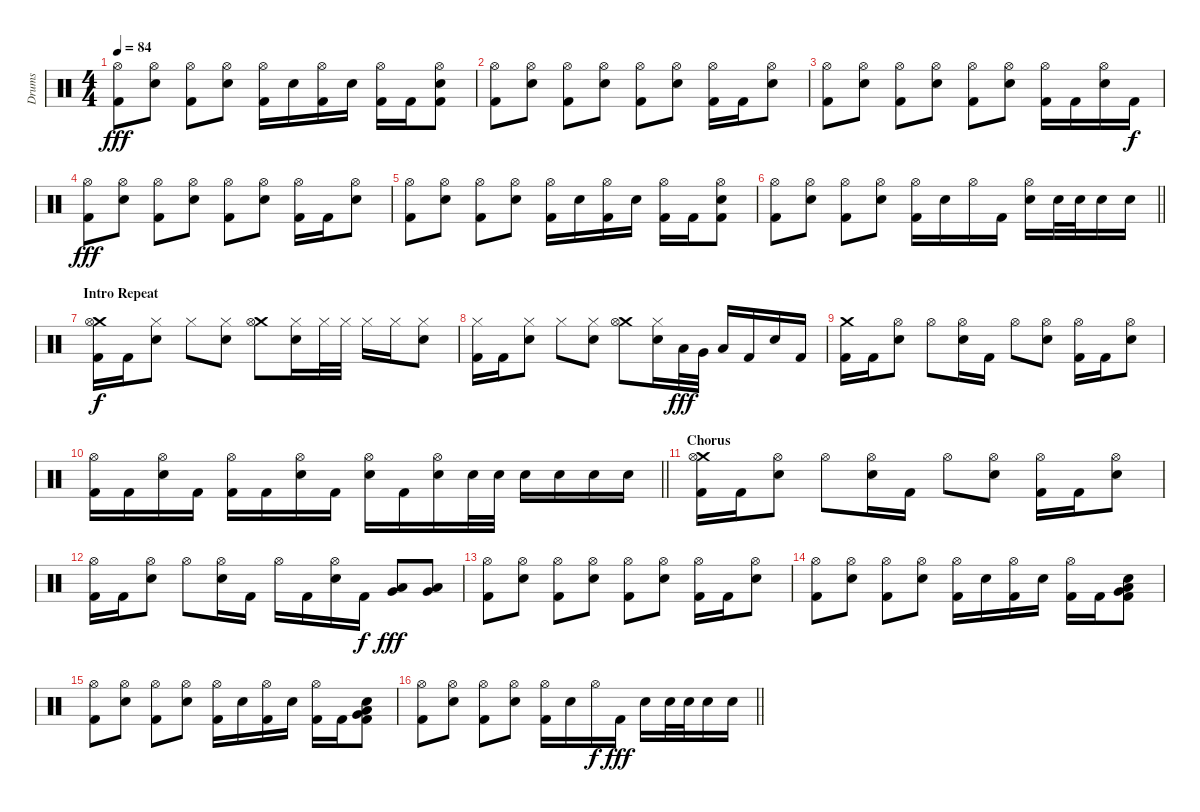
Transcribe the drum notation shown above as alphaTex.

\track ("Drums" "Drums") {instrument percussion}
\staff {score}
\articulation defaults
\ts (4 4)
\tempo 84
\clef neutral
\ks c
("Hi-Hat (open)" "Kick (hit) 2").8{dy fff} ("Hi-Hat (open)" "Electric Snare (hit)").8 ("Hi-Hat (open)" "Kick (hit) 2").8 ("Hi-Hat (open)" "Electric Snare (hit)").8 ("Hi-Hat (open)" "Kick (hit) 2").16 "Electric Snare (hit)".16 ("Hi-Hat (open)" "Kick (hit) 2").16 "Electric Snare (hit)".16 ("Hi-Hat (open)" "Kick (hit) 2").16 "Kick (hit) 2".16 ("Hi-Hat (open)" "Electric Snare (hit)" "Kick (hit) 2").8 |
("Hi-Hat (open)" "Kick (hit) 2").8 ("Hi-Hat (open)" "Electric Snare (hit)").8 ("Hi-Hat (open)" "Kick (hit) 2").8 ("Hi-Hat (open)" "Electric Snare (hit)").8 ("Hi-Hat (open)" "Kick (hit) 2").8 ("Hi-Hat (open)" "Electric Snare (hit)").8 ("Hi-Hat (open)" "Kick (hit) 2").16 "Kick (hit) 2".16 ("Hi-Hat (open)" "Electric Snare (hit)").8 |
("Hi-Hat (open)" "Kick (hit) 2").8 ("Hi-Hat (open)" "Electric Snare (hit)").8 ("Hi-Hat (open)" "Kick (hit) 2").8 ("Hi-Hat (open)" "Electric Snare (hit)").8 ("Hi-Hat (open)" "Kick (hit) 2").8 ("Hi-Hat (open)" "Electric Snare (hit)").8 ("Hi-Hat (open)" "Kick (hit) 2").16 "Kick (hit) 2".16 ("Hi-Hat (open)" "Electric Snare (hit)").16 "Kick (hit) 2".16{dy f} |
("Hi-Hat (open)" "Kick (hit) 2").8{dy fff} ("Hi-Hat (open)" "Electric Snare (hit)").8 ("Hi-Hat (open)" "Kick (hit) 2").8 ("Hi-Hat (open)" "Electric Snare (hit)").8 ("Hi-Hat (open)" "Kick (hit) 2").8 ("Hi-Hat (open)" "Electric Snare (hit)").8 ("Hi-Hat (open)" "Kick (hit) 2").16 "Kick (hit) 2".16 ("Hi-Hat (open)" "Electric Snare (hit)").8 |
("Hi-Hat (open)" "Kick (hit) 2").8 ("Hi-Hat (open)" "Electric Snare (hit)").8 ("Hi-Hat (open)" "Kick (hit) 2").8 ("Hi-Hat (open)" "Electric Snare (hit)").8 ("Hi-Hat (open)" "Kick (hit) 2").16 "Electric Snare (hit)".16 ("Hi-Hat (open)" "Kick (hit) 2").16 "Electric Snare (hit)".16 ("Hi-Hat (open)" "Kick (hit) 2").16 "Kick (hit) 2".16 ("Hi-Hat (open)" "Electric Snare (hit)" "Kick (hit) 2").8 |
\barLineRight lightlight
("Hi-Hat (open)" "Kick (hit) 2").8 ("Hi-Hat (open)" "Electric Snare (hit)").8 ("Hi-Hat (open)" "Kick (hit) 2").8 ("Hi-Hat (open)" "Electric Snare (hit)").8 ("Hi-Hat (open)" "Kick (hit) 2").16 "Electric Snare (hit)".16 "Hi-Hat (open)".16 "Kick (hit) 2".16 ("Hi-Hat (open)" "Electric Snare (hit)").16 "Electric Snare (hit)".32 "Electric Snare (hit)".32 "Electric Snare (hit)".16 "Electric Snare (hit)".16 |
\section ("" "Intro Repeat")
("Crash medium (hit)" "Hi-Hat (open)" "Kick (hit) 2").16{dy f} "Kick (hit) 2".16 ("Hi-Hat (closed)" "Electric Snare (hit)").8 "Hi-Hat (closed)".8 ("Hi-Hat (closed)" "Electric Snare (hit)").8 ("Crash medium (hit)" "Hi-Hat (open)").8 ("Hi-Hat (closed)" "Electric Snare (hit)").16 "Hi-Hat (closed)".32 "Hi-Hat (closed)".32 "Hi-Hat (closed)".16 "Hi-Hat (closed)".16 ("Hi-Hat (closed)" "Electric Snare (hit)").8 |
("Hi-Hat (closed)" "Kick (hit) 2").16 "Kick (hit) 2".16 ("Hi-Hat (closed)" "Electric Snare (hit)").8 "Hi-Hat (closed)".8 ("Hi-Hat (closed)" "Electric Snare (hit)").8 ("Crash medium (hit)" "Hi-Hat (open)").8 ("Hi-Hat (closed)" "Electric Snare (hit)").16 "Low Tom (hit)".32{dy fff} "Very Low Tom (hit)".32 "Low Floor Tom (hit)".16 "Kick (hit) 2".16 "Electric Snare (hit)".16 "Kick (hit) 2".16 |
("Crash medium (hit)" "Kick (hit) 2").16 "Kick (hit) 2".16 ("Hi-Hat (open)" "Electric Snare (hit)").8 "Hi-Hat (open)".8 ("Hi-Hat (open)" "Electric Snare (hit)").16 "Kick (hit) 2".16 "Hi-Hat (open)".8 ("Hi-Hat (open)" "Electric Snare (hit)").8 ("Hi-Hat (open)" "Kick (hit) 2").16 "Kick (hit) 2".16 ("Hi-Hat (open)" "Electric Snare (hit)").8 |
\barLineRight lightlight
("Hi-Hat (open)" "Kick (hit) 2").16 "Kick (hit) 2".16 ("Hi-Hat (open)" "Electric Snare (hit)").16 "Kick (hit) 2".16 ("Hi-Hat (open)" "Kick (hit) 2").16 "Kick (hit) 2".16 ("Hi-Hat (open)" "Electric Snare (hit)").16 "Kick (hit) 2".16 ("Hi-Hat (open)" "Electric Snare (hit)").16 "Kick (hit) 2".16 ("Hi-Hat (open)" "Electric Snare (hit)").16 "Electric Snare (hit)".32 "Electric Snare (hit)".32 "Electric Snare (hit)".16 "Electric Snare (hit)".16 "Electric Snare (hit)".16 "Electric Snare (hit)".16 |
\section ("" "Chorus")
("Crash medium (hit)" "Hi-Hat (open)" "Kick (hit) 2").16 "Kick (hit) 2".16 ("Hi-Hat (open)" "Electric Snare (hit)").8 "Hi-Hat (open)".8 ("Hi-Hat (open)" "Electric Snare (hit)").16 "Kick (hit) 2".16 "Hi-Hat (open)".8 ("Hi-Hat (open)" "Electric Snare (hit)").8 ("Hi-Hat (open)" "Kick (hit) 2").16 "Kick (hit) 2".16 ("Hi-Hat (open)" "Electric Snare (hit)").8 |
("Hi-Hat (open)" "Kick (hit) 2").16 "Kick (hit) 2".16 ("Hi-Hat (open)" "Electric Snare (hit)").8 "Hi-Hat (open)".8 ("Hi-Hat (open)" "Electric Snare (hit)").16 "Kick (hit) 2".16 "Hi-Hat (open)".16 "Kick (hit) 2".16 ("Hi-Hat (open)" "Electric Snare (hit)").16 "Kick (hit) 2".16{dy f} ("Very Low Tom (hit)" "Low Tom (hit)").8{dy fff} ("Low Floor Tom (hit)" "Very Low Tom (hit)").8 |
("Hi-Hat (open)" "Kick (hit) 2").8 ("Hi-Hat (open)" "Electric Snare (hit)").8 ("Hi-Hat (open)" "Kick (hit) 2").8 ("Hi-Hat (open)" "Electric Snare (hit)").8 ("Hi-Hat (open)" "Kick (hit) 2").8 ("Hi-Hat (open)" "Electric Snare (hit)").8 ("Hi-Hat (open)" "Kick (hit) 2").16 "Kick (hit) 2".16 ("Hi-Hat (open)" "Electric Snare (hit)").8 |
("Hi-Hat (open)" "Kick (hit) 2").8 ("Hi-Hat (open)" "Electric Snare (hit)").8 ("Hi-Hat (open)" "Kick (hit) 2").8 ("Hi-Hat (open)" "Electric Snare (hit)").8 ("Hi-Hat (open)" "Kick (hit) 2").16 "Electric Snare (hit)".16 ("Hi-Hat (open)" "Kick (hit) 2").16 "Electric Snare (hit)".16 ("Hi-Hat (open)" "Kick (hit) 2").16 "Kick (hit) 2".16 ("Electric Snare (hit)" "Very Low Tom (hit)" "Low Tom (hit)" "Kick (hit) 2").8 |
("Hi-Hat (open)" "Kick (hit) 2").8 ("Hi-Hat (open)" "Electric Snare (hit)").8 ("Hi-Hat (open)" "Kick (hit) 2").8 ("Hi-Hat (open)" "Electric Snare (hit)").8 ("Hi-Hat (open)" "Kick (hit) 2").16 "Electric Snare (hit)".16 ("Hi-Hat (open)" "Kick (hit) 2").16 "Electric Snare (hit)".16 ("Hi-Hat (open)" "Kick (hit) 2").16 "Kick (hit) 2".16 ("Electric Snare (hit)" "Very Low Tom (hit)" "Low Tom (hit)" "Kick (hit) 2").8 |
\barLineRight lightlight
("Hi-Hat (open)" "Kick (hit) 2").8 ("Hi-Hat (open)" "Electric Snare (hit)").8 ("Hi-Hat (open)" "Kick (hit) 2").8 ("Hi-Hat (open)" "Electric Snare (hit)").8 ("Hi-Hat (open)" "Kick (hit) 2").16 "Electric Snare (hit)".16 "Hi-Hat (open)".16{dy f} "Kick (hit) 2".16{dy fff} "Electric Snare (hit)".16 "Electric Snare (hit)".32 "Electric Snare (hit)".32 "Electric Snare (hit)".16 "Electric Snare (hit)".16
